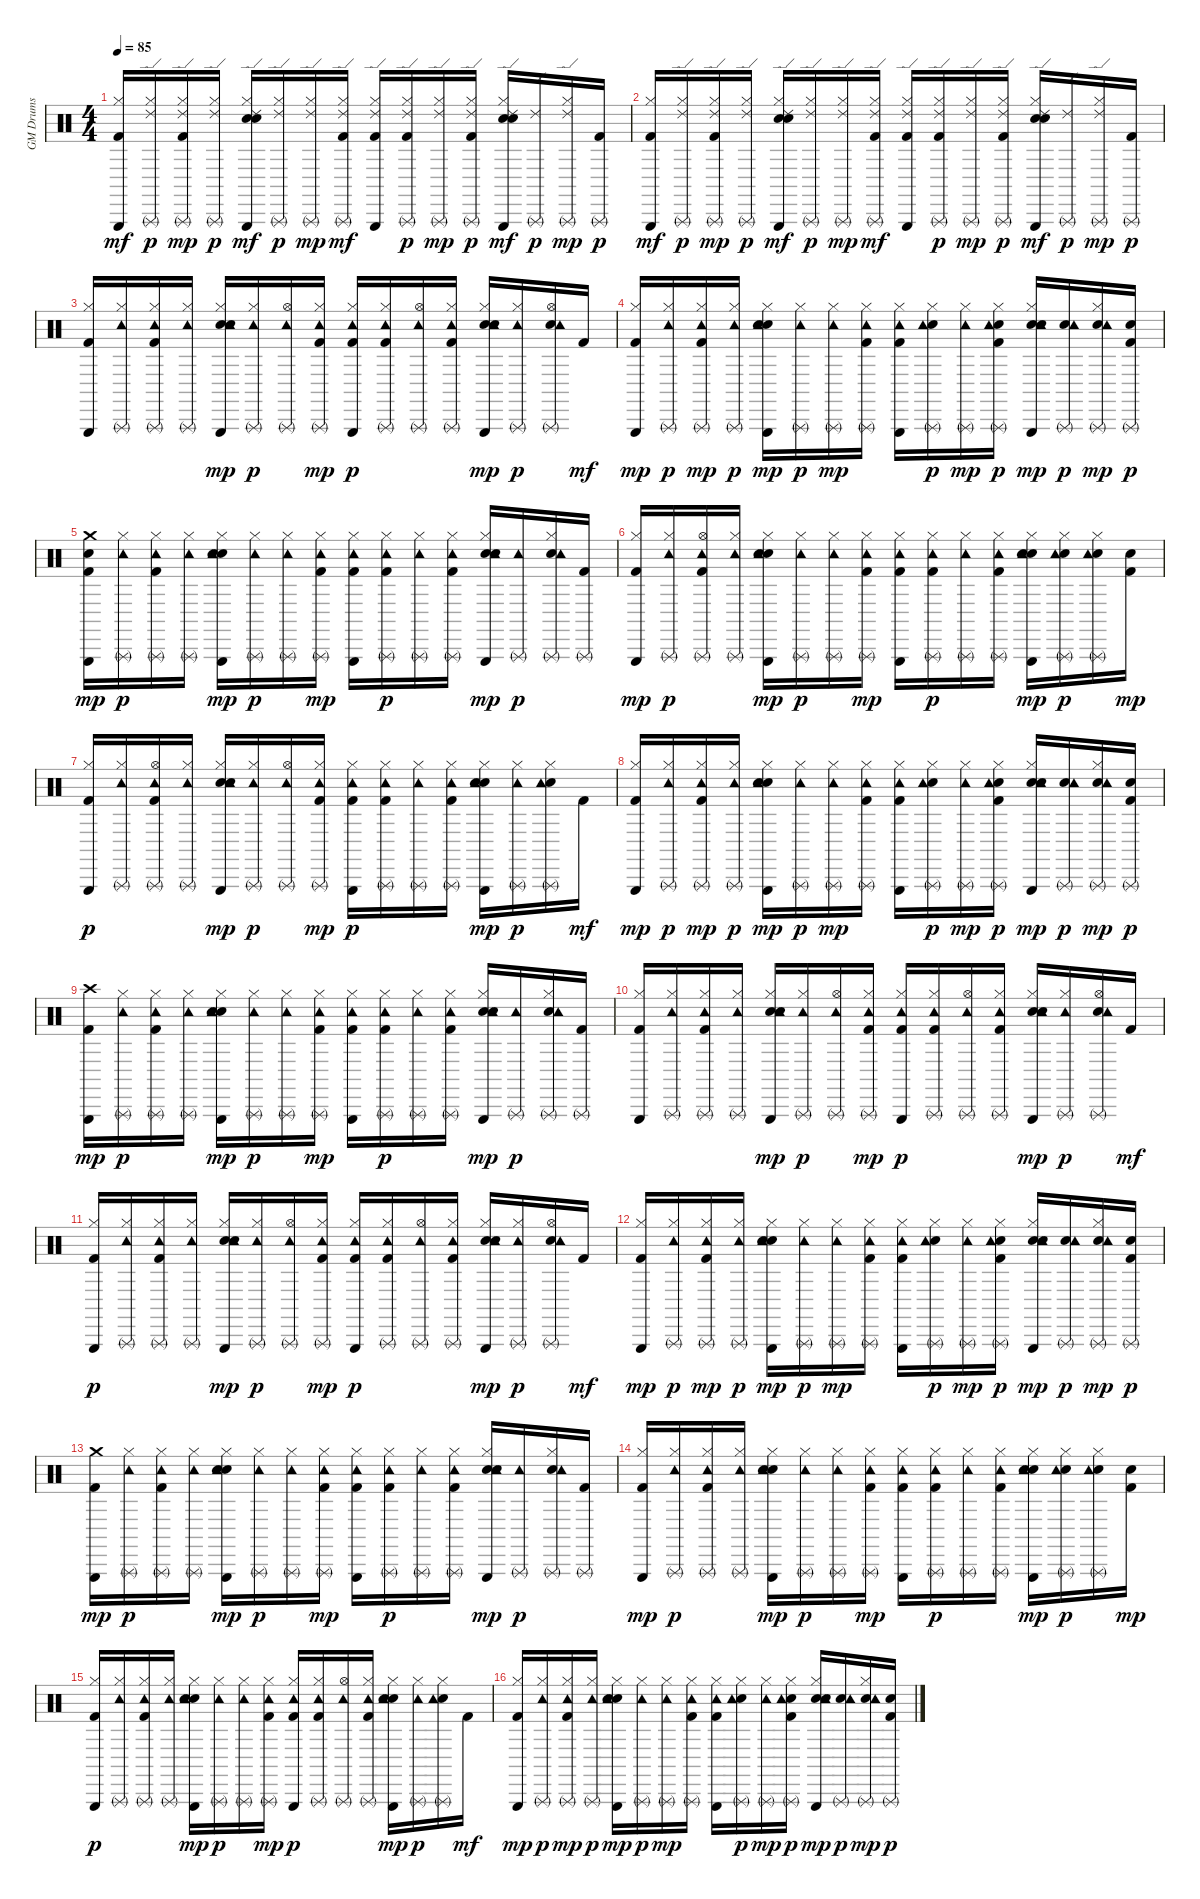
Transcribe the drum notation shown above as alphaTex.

\track ("GM Drums" "GM Drums") {instrument percussion}
\staff {score}
\articulation defaults
\ts (4 4)
\tempo 85
\clef neutral
\ks c
("Kick (hit) 2" "Hi-Hat (closed)" "Triangle (hit)").16{dy mf} ("Hi-Hat (closed)" "Ride (edge) 2" "Triangle (rnute)").16{dy p} ("Kick (hit) 2" "Hi-Hat (closed)" "Ride (edge) 2" "Triangle (rnute)").16{dy mp} ("Hi-Hat (closed)" "Ride (edge) 2" "Triangle (rnute)").16{dy p} ("Snare (hit) 2" "Hand Clap (hit)" "Hi-Hat (closed)" "Ride (edge) 2" "Triangle (hit)").16{dy mf} ("Hi-Hat (closed)" "Ride (edge) 2" "Triangle (rnute)").16{dy p} ("Hi-Hat (closed)" "Ride (edge) 2" "Triangle (rnute)").16{dy mp} ("Kick (hit) 2" "Hi-Hat (closed)" "Ride (edge) 2" "Triangle (rnute)").16{dy mf} ("Kick (hit) 2" "Hi-Hat (closed)" "Ride (edge) 2" "Triangle (hit)").16 ("Kick (hit) 2" "Hi-Hat (closed)" "Ride (edge) 2" "Triangle (rnute)").16{dy p} ("Hi-Hat (closed)" "Ride (edge) 2" "Triangle (rnute)").16{dy mp} ("Kick (hit) 2" "Hi-Hat (closed)" "Ride (edge) 2" "Triangle (rnute)").16{dy p} ("Snare (hit) 2" "Hand Clap (hit)" "Hi-Hat (closed)" "Ride (edge) 2" "Triangle (hit)").16{dy mf} ("Ride (edge) 2" "Triangle (rnute)").16{dy p} ("Hi-Hat (closed)" "Ride (edge) 2" "Triangle (rnute)").16{dy mp} ("Kick (hit) 2" "Triangle (rnute)").16{dy p} |
("Kick (hit) 2" "Hi-Hat (closed)" "Triangle (hit)").16{dy mf} ("Hi-Hat (closed)" "Ride (edge) 2" "Triangle (rnute)").16{dy p} ("Kick (hit) 2" "Hi-Hat (closed)" "Ride (edge) 2" "Triangle (rnute)").16{dy mp} ("Hi-Hat (closed)" "Ride (edge) 2" "Triangle (rnute)").16{dy p} ("Snare (hit) 2" "Hand Clap (hit)" "Hi-Hat (closed)" "Ride (edge) 2" "Triangle (hit)").16{dy mf} ("Hi-Hat (closed)" "Ride (edge) 2" "Triangle (rnute)").16{dy p} ("Hi-Hat (closed)" "Ride (edge) 2" "Triangle (rnute)").16{dy mp} ("Kick (hit) 2" "Hi-Hat (closed)" "Ride (edge) 2" "Triangle (rnute)").16{dy mf} ("Kick (hit) 2" "Hi-Hat (closed)" "Ride (edge) 2" "Triangle (hit)").16 ("Kick (hit) 2" "Hi-Hat (closed)" "Ride (edge) 2" "Triangle (rnute)").16{dy p} ("Hi-Hat (closed)" "Ride (edge) 2" "Triangle (rnute)").16{dy mp} ("Kick (hit) 2" "Hi-Hat (closed)" "Ride (edge) 2" "Triangle (rnute)").16{dy p} ("Snare (hit) 2" "Hand Clap (hit)" "Hi-Hat (closed)" "Ride (edge) 2" "Triangle (hit)").16{dy mf} ("Ride (edge) 2" "Triangle (rnute)").16{dy p} ("Hi-Hat (closed)" "Ride (edge) 2" "Triangle (rnute)").16{dy mp} ("Kick (hit) 2" "Triangle (rnute)").16{dy p} |
("Kick (hit) 2" "Hi-Hat (closed)" "Triangle (hit)").16 ("Hi-Hat (closed)" "Tambourine (hit)" "Triangle (rnute)").16 ("Kick (hit) 2" "Hi-Hat (closed)" "Tambourine (hit)" "Triangle (rnute)").16 ("Hi-Hat (closed)" "Tambourine (hit)" "Triangle (rnute)").16 ("Snare (hit) 2" "Hand Clap (hit)" "Hi-Hat (closed)" "Tambourine (hit)" "Triangle (hit)").16{dy mp} ("Hi-Hat (closed)" "Tambourine (hit)" "Triangle (rnute)").16{dy p} ("Hi-Hat (open)" "Tambourine (hit)" "Triangle (rnute)").16 ("Kick (hit) 2" "Hi-Hat (closed)" "Tambourine (hit)" "Triangle (rnute)").16{dy mp} ("Kick (hit) 2" "Hi-Hat (closed)" "Tambourine (hit)" "Triangle (hit)").16{dy p} ("Kick (hit) 2" "Hi-Hat (closed)" "Tambourine (hit)" "Triangle (rnute)").16 ("Hi-Hat (open)" "Tambourine (hit)" "Triangle (rnute)").16 ("Kick (hit) 2" "Hi-Hat (closed)" "Tambourine (hit)" "Triangle (rnute)").16 ("Snare (hit) 2" "Hand Clap (hit)" "Hi-Hat (closed)" "Tambourine (hit)" "Triangle (hit)").16{dy mp} ("Hi-Hat (closed)" "Tambourine (hit)" "Triangle (rnute)").16{dy p} ("Snare (hit) 2" "Hi-Hat (open)" "Tambourine (hit)" "Triangle (rnute)").16 "Kick (hit) 2".16{dy mf} |
("Kick (hit) 2" "Hi-Hat (closed)" "Triangle (hit)").16{dy mp} ("Hi-Hat (closed)" "Tambourine (hit)" "Triangle (rnute)").16{dy p} ("Kick (hit) 2" "Hi-Hat (closed)" "Tambourine (hit)" "Triangle (rnute)").16{dy mp} ("Hi-Hat (closed)" "Tambourine (hit)" "Triangle (rnute)").16{dy p} ("Snare (hit) 2" "Hand Clap (hit)" "Hi-Hat (closed)" "Tambourine (hit)" "Triangle (hit)").16{dy mp} ("Hi-Hat (closed)" "Tambourine (hit)" "Triangle (rnute)").16{dy p} ("Hi-Hat (closed)" "Tambourine (hit)" "Triangle (rnute)").16{dy mp} ("Kick (hit) 2" "Hi-Hat (closed)" "Tambourine (hit)" "Triangle (rnute)").16 ("Kick (hit) 2" "Hi-Hat (closed)" "Tambourine (hit)" "Triangle (hit)").16 ("Snare (hit) 2" "Hi-Hat (closed)" "Tambourine (hit)" "Triangle (rnute)").16{dy p} ("Hi-Hat (closed)" "Tambourine (hit)" "Triangle (rnute)").16{dy mp} ("Kick (hit) 2" "Snare (hit) 2" "Hi-Hat (closed)" "Tambourine (hit)" "Triangle (rnute)").16{dy p} ("Snare (hit) 2" "Hand Clap (hit)" "Hi-Hat (closed)" "Tambourine (hit)" "Triangle (hit)").16{dy mp} ("Snare (hit) 2" "Tambourine (hit)" "Triangle (rnute)").16{dy p} ("Snare (hit) 2" "Hi-Hat (closed)" "Tambourine (hit)" "Triangle (rnute)").16{dy mp} ("Kick (hit) 2" "Snare (hit) 2" "Triangle (rnute)").16{dy p} |
("Kick (hit) 2" "Snare (hit) 2" "Crash medium (hit)" "Triangle (hit)").16{dy mp} ("Hi-Hat (closed)" "Tambourine (hit)" "Triangle (rnute)").16{dy p} ("Kick (hit) 2" "Hi-Hat (closed)" "Tambourine (hit)" "Triangle (rnute)").16 ("Hi-Hat (closed)" "Tambourine (hit)" "Triangle (rnute)").16 ("Snare (hit) 2" "Hand Clap (hit)" "Hi-Hat (closed)" "Tambourine (hit)" "Triangle (hit)").16{dy mp} ("Hi-Hat (closed)" "Tambourine (hit)" "Triangle (rnute)").16{dy p} ("Hi-Hat (closed)" "Tambourine (hit)" "Triangle (rnute)").16 ("Kick (hit) 2" "Hi-Hat (closed)" "Tambourine (hit)" "Triangle (rnute)").16{dy mp} ("Kick (hit) 2" "Hi-Hat (closed)" "Tambourine (hit)" "Triangle (hit)").16 ("Kick (hit) 2" "Hi-Hat (closed)" "Tambourine (hit)" "Triangle (rnute)").16{dy p} ("Hi-Hat (closed)" "Tambourine (hit)" "Triangle (rnute)").16 ("Kick (hit) 2" "Hi-Hat (closed)" "Tambourine (hit)" "Triangle (rnute)").16 ("Snare (hit) 2" "Hand Clap (hit)" "Hi-Hat (closed)" "Tambourine (hit)" "Triangle (hit)").16{dy mp} ("Tambourine (hit)" "Triangle (rnute)").16{dy p} ("Snare (hit) 2" "Hi-Hat (closed)" "Tambourine (hit)" "Triangle (rnute)").16 ("Kick (hit) 2" "Triangle (rnute)").16 |
("Kick (hit) 2" "Hi-Hat (closed)" "Triangle (hit)").16{dy mp} ("Hi-Hat (closed)" "Tambourine (hit)" "Triangle (rnute)").16{dy p} ("Kick (hit) 2" "Hi-Hat (open)" "Tambourine (hit)" "Triangle (rnute)").16 ("Hi-Hat (closed)" "Tambourine (hit)" "Triangle (rnute)").16 ("Snare (hit) 2" "Hand Clap (hit)" "Hi-Hat (closed)" "Tambourine (hit)" "Triangle (hit)").16{dy mp} ("Hi-Hat (closed)" "Tambourine (hit)" "Triangle (rnute)").16{dy p} ("Hi-Hat (closed)" "Tambourine (hit)" "Triangle (rnute)").16 ("Kick (hit) 2" "Hi-Hat (closed)" "Tambourine (hit)" "Triangle (rnute)").16{dy mp} ("Kick (hit) 2" "Hi-Hat (closed)" "Tambourine (hit)" "Triangle (hit)").16 ("Kick (hit) 2" "Hi-Hat (closed)" "Tambourine (hit)" "Triangle (rnute)").16{dy p} ("Hi-Hat (closed)" "Tambourine (hit)" "Triangle (rnute)").16 ("Kick (hit) 2" "Hi-Hat (closed)" "Tambourine (hit)" "Triangle (rnute)").16 ("Snare (hit) 2" "Hand Clap (hit)" "Hi-Hat (closed)" "Tambourine (hit)" "Triangle (hit)").16{dy mp} ("Snare (hit) 2" "Hi-Hat (closed)" "Tambourine (hit)" "Triangle (rnute)").16{dy p} ("Snare (hit) 2" "Hi-Hat (closed)" "Tambourine (hit)" "Triangle (rnute)").16 ("Kick (hit) 2" "Snare (hit) 2").16{dy mp} |
("Kick (hit) 2" "Hi-Hat (closed)" "Triangle (hit)").16{dy p} ("Hi-Hat (closed)" "Tambourine (hit)" "Triangle (rnute)").16 ("Kick (hit) 2" "Hi-Hat (open)" "Tambourine (hit)" "Triangle (rnute)").16 ("Hi-Hat (closed)" "Tambourine (hit)" "Triangle (rnute)").16 ("Snare (hit) 2" "Hand Clap (hit)" "Hi-Hat (closed)" "Tambourine (hit)" "Triangle (hit)").16{dy mp} ("Hi-Hat (closed)" "Tambourine (hit)" "Triangle (rnute)").16{dy p} ("Hi-Hat (open)" "Tambourine (hit)" "Triangle (rnute)").16 ("Kick (hit) 2" "Hi-Hat (closed)" "Tambourine (hit)" "Triangle (rnute)").16{dy mp} ("Kick (hit) 2" "Hi-Hat (closed)" "Tambourine (hit)" "Triangle (hit)").16{dy p} ("Kick (hit) 2" "Hi-Hat (closed)" "Tambourine (hit)" "Triangle (rnute)").16 ("Hi-Hat (closed)" "Tambourine (hit)" "Triangle (rnute)").16 ("Kick (hit) 2" "Hi-Hat (closed)" "Tambourine (hit)" "Triangle (rnute)").16 ("Snare (hit) 2" "Hand Clap (hit)" "Hi-Hat (closed)" "Tambourine (hit)" "Triangle (hit)").16{dy mp} ("Hi-Hat (closed)" "Tambourine (hit)" "Triangle (rnute)").16{dy p} ("Snare (hit) 2" "Hi-Hat (closed)" "Tambourine (hit)" "Triangle (rnute)").16 "Kick (hit) 2".16{dy mf} |
("Kick (hit) 2" "Hi-Hat (closed)" "Triangle (hit)").16{dy mp} ("Hi-Hat (closed)" "Tambourine (hit)" "Triangle (rnute)").16{dy p} ("Kick (hit) 2" "Hi-Hat (closed)" "Tambourine (hit)" "Triangle (rnute)").16{dy mp} ("Hi-Hat (closed)" "Tambourine (hit)" "Triangle (rnute)").16{dy p} ("Snare (hit) 2" "Hand Clap (hit)" "Hi-Hat (closed)" "Tambourine (hit)" "Triangle (hit)").16{dy mp} ("Hi-Hat (closed)" "Tambourine (hit)" "Triangle (rnute)").16{dy p} ("Hi-Hat (closed)" "Tambourine (hit)" "Triangle (rnute)").16{dy mp} ("Kick (hit) 2" "Hi-Hat (closed)" "Tambourine (hit)" "Triangle (rnute)").16 ("Kick (hit) 2" "Hi-Hat (closed)" "Tambourine (hit)" "Triangle (hit)").16 ("Snare (hit) 2" "Hi-Hat (closed)" "Tambourine (hit)" "Triangle (rnute)").16{dy p} ("Hi-Hat (closed)" "Tambourine (hit)" "Triangle (rnute)").16{dy mp} ("Kick (hit) 2" "Snare (hit) 2" "Hi-Hat (closed)" "Tambourine (hit)" "Triangle (rnute)").16{dy p} ("Snare (hit) 2" "Hand Clap (hit)" "Hi-Hat (closed)" "Tambourine (hit)" "Triangle (hit)").16{dy mp} ("Snare (hit) 2" "Tambourine (hit)" "Triangle (rnute)").16{dy p} ("Snare (hit) 2" "Hi-Hat (closed)" "Tambourine (hit)" "Triangle (rnute)").16{dy mp} ("Kick (hit) 2" "Snare (hit) 2" "Triangle (rnute)").16{dy p} |
("Kick (hit) 2" "Crash high (hit)" "Triangle (hit)").16{dy mp} ("Hi-Hat (closed)" "Tambourine (hit)" "Triangle (rnute)").16{dy p} ("Kick (hit) 2" "Hi-Hat (closed)" "Tambourine (hit)" "Triangle (rnute)").16 ("Hi-Hat (closed)" "Tambourine (hit)" "Triangle (rnute)").16 ("Snare (hit) 2" "Hand Clap (hit)" "Hi-Hat (closed)" "Tambourine (hit)" "Triangle (hit)").16{dy mp} ("Hi-Hat (closed)" "Tambourine (hit)" "Triangle (rnute)").16{dy p} ("Hi-Hat (closed)" "Tambourine (hit)" "Triangle (rnute)").16 ("Kick (hit) 2" "Hi-Hat (closed)" "Tambourine (hit)" "Triangle (rnute)").16{dy mp} ("Kick (hit) 2" "Hi-Hat (closed)" "Tambourine (hit)" "Triangle (hit)").16 ("Kick (hit) 2" "Hi-Hat (closed)" "Tambourine (hit)" "Triangle (rnute)").16{dy p} ("Hi-Hat (closed)" "Tambourine (hit)" "Triangle (rnute)").16 ("Kick (hit) 2" "Hi-Hat (closed)" "Tambourine (hit)" "Triangle (rnute)").16 ("Snare (hit) 2" "Hand Clap (hit)" "Hi-Hat (closed)" "Tambourine (hit)" "Triangle (hit)").16{dy mp} ("Tambourine (hit)" "Triangle (rnute)").16{dy p} ("Snare (hit) 2" "Hi-Hat (closed)" "Tambourine (hit)" "Triangle (rnute)").16 ("Kick (hit) 2" "Triangle (rnute)").16 |
("Kick (hit) 2" "Hi-Hat (closed)" "Triangle (hit)").16 ("Hi-Hat (closed)" "Tambourine (hit)" "Triangle (rnute)").16 ("Kick (hit) 2" "Hi-Hat (closed)" "Tambourine (hit)" "Triangle (rnute)").16 ("Hi-Hat (closed)" "Tambourine (hit)" "Triangle (rnute)").16 ("Snare (hit) 2" "Hand Clap (hit)" "Hi-Hat (closed)" "Tambourine (hit)" "Triangle (hit)").16{dy mp} ("Hi-Hat (closed)" "Tambourine (hit)" "Triangle (rnute)").16{dy p} ("Hi-Hat (open)" "Tambourine (hit)" "Triangle (rnute)").16 ("Kick (hit) 2" "Hi-Hat (closed)" "Tambourine (hit)" "Triangle (rnute)").16{dy mp} ("Kick (hit) 2" "Hi-Hat (closed)" "Tambourine (hit)" "Triangle (hit)").16{dy p} ("Kick (hit) 2" "Hi-Hat (closed)" "Tambourine (hit)" "Triangle (rnute)").16 ("Hi-Hat (open)" "Tambourine (hit)" "Triangle (rnute)").16 ("Kick (hit) 2" "Hi-Hat (closed)" "Tambourine (hit)" "Triangle (rnute)").16 ("Snare (hit) 2" "Hand Clap (hit)" "Hi-Hat (closed)" "Tambourine (hit)" "Triangle (hit)").16{dy mp} ("Hi-Hat (closed)" "Tambourine (hit)" "Triangle (rnute)").16{dy p} ("Snare (hit) 2" "Hi-Hat (open)" "Tambourine (hit)" "Triangle (rnute)").16 "Kick (hit) 2".16{dy mf} |
("Kick (hit) 2" "Hi-Hat (closed)" "Triangle (hit)").16{dy p} ("Hi-Hat (closed)" "Tambourine (hit)" "Triangle (rnute)").16 ("Kick (hit) 2" "Hi-Hat (closed)" "Tambourine (hit)" "Triangle (rnute)").16 ("Hi-Hat (closed)" "Tambourine (hit)" "Triangle (rnute)").16 ("Snare (hit) 2" "Hand Clap (hit)" "Hi-Hat (closed)" "Tambourine (hit)" "Triangle (hit)").16{dy mp} ("Hi-Hat (closed)" "Tambourine (hit)" "Triangle (rnute)").16{dy p} ("Hi-Hat (open)" "Tambourine (hit)" "Triangle (rnute)").16 ("Kick (hit) 2" "Hi-Hat (closed)" "Tambourine (hit)" "Triangle (rnute)").16{dy mp} ("Kick (hit) 2" "Hi-Hat (closed)" "Tambourine (hit)" "Triangle (hit)").16{dy p} ("Kick (hit) 2" "Hi-Hat (closed)" "Tambourine (hit)" "Triangle (rnute)").16 ("Hi-Hat (open)" "Tambourine (hit)" "Triangle (rnute)").16 ("Kick (hit) 2" "Hi-Hat (closed)" "Tambourine (hit)" "Triangle (rnute)").16 ("Snare (hit) 2" "Hand Clap (hit)" "Hi-Hat (closed)" "Tambourine (hit)" "Triangle (hit)").16{dy mp} ("Hi-Hat (closed)" "Tambourine (hit)" "Triangle (rnute)").16{dy p} ("Snare (hit) 2" "Hi-Hat (open)" "Tambourine (hit)" "Triangle (rnute)").16 "Kick (hit) 2".16{dy mf} |
("Kick (hit) 2" "Hi-Hat (closed)" "Triangle (hit)").16{dy mp} ("Hi-Hat (closed)" "Tambourine (hit)" "Triangle (rnute)").16{dy p} ("Kick (hit) 2" "Hi-Hat (closed)" "Tambourine (hit)" "Triangle (rnute)").16{dy mp} ("Hi-Hat (closed)" "Tambourine (hit)" "Triangle (rnute)").16{dy p} ("Snare (hit) 2" "Hand Clap (hit)" "Hi-Hat (closed)" "Tambourine (hit)" "Triangle (hit)").16{dy mp} ("Hi-Hat (closed)" "Tambourine (hit)" "Triangle (rnute)").16{dy p} ("Hi-Hat (closed)" "Tambourine (hit)" "Triangle (rnute)").16{dy mp} ("Kick (hit) 2" "Hi-Hat (closed)" "Tambourine (hit)" "Triangle (rnute)").16 ("Kick (hit) 2" "Hi-Hat (closed)" "Tambourine (hit)" "Triangle (hit)").16 ("Snare (hit) 2" "Hi-Hat (closed)" "Tambourine (hit)" "Triangle (rnute)").16{dy p} ("Hi-Hat (closed)" "Tambourine (hit)" "Triangle (rnute)").16{dy mp} ("Kick (hit) 2" "Snare (hit) 2" "Hi-Hat (closed)" "Tambourine (hit)" "Triangle (rnute)").16{dy p} ("Snare (hit) 2" "Hand Clap (hit)" "Hi-Hat (closed)" "Tambourine (hit)" "Triangle (hit)").16{dy mp} ("Snare (hit) 2" "Tambourine (hit)" "Triangle (rnute)").16{dy p} ("Snare (hit) 2" "Hi-Hat (closed)" "Tambourine (hit)" "Triangle (rnute)").16{dy mp} ("Kick (hit) 2" "Snare (hit) 2" "Triangle (rnute)").16{dy p} |
("Kick (hit) 2" "Crash medium (hit)" "Triangle (hit)").16{dy mp} ("Hi-Hat (closed)" "Tambourine (hit)" "Triangle (rnute)").16{dy p} ("Kick (hit) 2" "Hi-Hat (closed)" "Tambourine (hit)" "Triangle (rnute)").16 ("Hi-Hat (closed)" "Tambourine (hit)" "Triangle (rnute)").16 ("Snare (hit) 2" "Hand Clap (hit)" "Hi-Hat (closed)" "Tambourine (hit)" "Triangle (hit)").16{dy mp} ("Hi-Hat (closed)" "Tambourine (hit)" "Triangle (rnute)").16{dy p} ("Hi-Hat (closed)" "Tambourine (hit)" "Triangle (rnute)").16 ("Kick (hit) 2" "Hi-Hat (closed)" "Tambourine (hit)" "Triangle (rnute)").16{dy mp} ("Kick (hit) 2" "Hi-Hat (closed)" "Tambourine (hit)" "Triangle (hit)").16 ("Kick (hit) 2" "Hi-Hat (closed)" "Tambourine (hit)" "Triangle (rnute)").16{dy p} ("Hi-Hat (closed)" "Tambourine (hit)" "Triangle (rnute)").16 ("Kick (hit) 2" "Hi-Hat (closed)" "Tambourine (hit)" "Triangle (rnute)").16 ("Snare (hit) 2" "Hand Clap (hit)" "Hi-Hat (closed)" "Tambourine (hit)" "Triangle (hit)").16{dy mp} ("Tambourine (hit)" "Triangle (rnute)").16{dy p} ("Snare (hit) 2" "Hi-Hat (closed)" "Tambourine (hit)" "Triangle (rnute)").16 ("Kick (hit) 2" "Triangle (rnute)").16 |
("Kick (hit) 2" "Hi-Hat (closed)" "Triangle (hit)").16{dy mp} ("Hi-Hat (closed)" "Tambourine (hit)" "Triangle (rnute)").16{dy p} ("Kick (hit) 2" "Hi-Hat (closed)" "Tambourine (hit)" "Triangle (rnute)").16 ("Hi-Hat (closed)" "Tambourine (hit)" "Triangle (rnute)").16 ("Snare (hit) 2" "Hand Clap (hit)" "Hi-Hat (closed)" "Tambourine (hit)" "Triangle (hit)").16{dy mp} ("Hi-Hat (closed)" "Tambourine (hit)" "Triangle (rnute)").16{dy p} ("Hi-Hat (closed)" "Tambourine (hit)" "Triangle (rnute)").16 ("Kick (hit) 2" "Hi-Hat (closed)" "Tambourine (hit)" "Triangle (rnute)").16{dy mp} ("Kick (hit) 2" "Hi-Hat (closed)" "Tambourine (hit)" "Triangle (hit)").16 ("Kick (hit) 2" "Hi-Hat (closed)" "Tambourine (hit)" "Triangle (rnute)").16{dy p} ("Hi-Hat (closed)" "Tambourine (hit)" "Triangle (rnute)").16 ("Kick (hit) 2" "Hi-Hat (closed)" "Tambourine (hit)" "Triangle (rnute)").16 ("Snare (hit) 2" "Hand Clap (hit)" "Hi-Hat (closed)" "Tambourine (hit)" "Triangle (hit)").16{dy mp} ("Snare (hit) 2" "Hi-Hat (closed)" "Tambourine (hit)" "Triangle (rnute)").16{dy p} ("Snare (hit) 2" "Hi-Hat (closed)" "Tambourine (hit)" "Triangle (rnute)").16 ("Kick (hit) 2" "Snare (hit) 2").16{dy mp} |
("Kick (hit) 2" "Hi-Hat (closed)" "Triangle (hit)").16{dy p} ("Hi-Hat (closed)" "Tambourine (hit)" "Triangle (rnute)").16 ("Kick (hit) 2" "Hi-Hat (closed)" "Tambourine (hit)" "Triangle (rnute)").16 ("Hi-Hat (closed)" "Tambourine (hit)" "Triangle (rnute)").16 ("Snare (hit) 2" "Hand Clap (hit)" "Hi-Hat (closed)" "Tambourine (hit)" "Triangle (hit)").16{dy mp} ("Hi-Hat (closed)" "Tambourine (hit)" "Triangle (rnute)").16{dy p} ("Hi-Hat (closed)" "Tambourine (hit)" "Triangle (rnute)").16 ("Kick (hit) 2" "Hi-Hat (closed)" "Tambourine (hit)" "Triangle (rnute)").16{dy mp} ("Kick (hit) 2" "Hi-Hat (closed)" "Tambourine (hit)" "Triangle (hit)").16{dy p} ("Kick (hit) 2" "Hi-Hat (closed)" "Tambourine (hit)" "Triangle (rnute)").16 ("Hi-Hat (open)" "Tambourine (hit)" "Triangle (rnute)").16 ("Kick (hit) 2" "Hi-Hat (closed)" "Tambourine (hit)" "Triangle (rnute)").16 ("Snare (hit) 2" "Hand Clap (hit)" "Hi-Hat (closed)" "Tambourine (hit)" "Triangle (hit)").16{dy mp} ("Hi-Hat (closed)" "Tambourine (hit)" "Triangle (rnute)").16{dy p} ("Snare (hit) 2" "Hi-Hat (closed)" "Tambourine (hit)" "Triangle (rnute)").16 "Kick (hit) 2".16{dy mf} |
("Kick (hit) 2" "Hi-Hat (closed)" "Triangle (hit)").16{dy mp} ("Hi-Hat (closed)" "Tambourine (hit)" "Triangle (rnute)").16{dy p} ("Kick (hit) 2" "Hi-Hat (closed)" "Tambourine (hit)" "Triangle (rnute)").16{dy mp} ("Hi-Hat (closed)" "Tambourine (hit)" "Triangle (rnute)").16{dy p} ("Snare (hit) 2" "Hand Clap (hit)" "Hi-Hat (closed)" "Tambourine (hit)" "Triangle (hit)").16{dy mp} ("Hi-Hat (closed)" "Tambourine (hit)" "Triangle (rnute)").16{dy p} ("Hi-Hat (closed)" "Tambourine (hit)" "Triangle (rnute)").16{dy mp} ("Kick (hit) 2" "Hi-Hat (closed)" "Tambourine (hit)" "Triangle (rnute)").16 ("Kick (hit) 2" "Hi-Hat (closed)" "Tambourine (hit)" "Triangle (hit)").16 ("Snare (hit) 2" "Hi-Hat (closed)" "Tambourine (hit)" "Triangle (rnute)").16{dy p} ("Hi-Hat (closed)" "Tambourine (hit)" "Triangle (rnute)").16{dy mp} ("Kick (hit) 2" "Snare (hit) 2" "Hi-Hat (closed)" "Tambourine (hit)" "Triangle (rnute)").16{dy p} ("Snare (hit) 2" "Hand Clap (hit)" "Hi-Hat (closed)" "Tambourine (hit)" "Triangle (hit)").16{dy mp} ("Snare (hit) 2" "Tambourine (hit)" "Triangle (rnute)").16{dy p} ("Snare (hit) 2" "Hi-Hat (closed)" "Tambourine (hit)" "Triangle (rnute)").16{dy mp} ("Kick (hit) 2" "Snare (hit) 2" "Triangle (rnute)").16{dy p}
